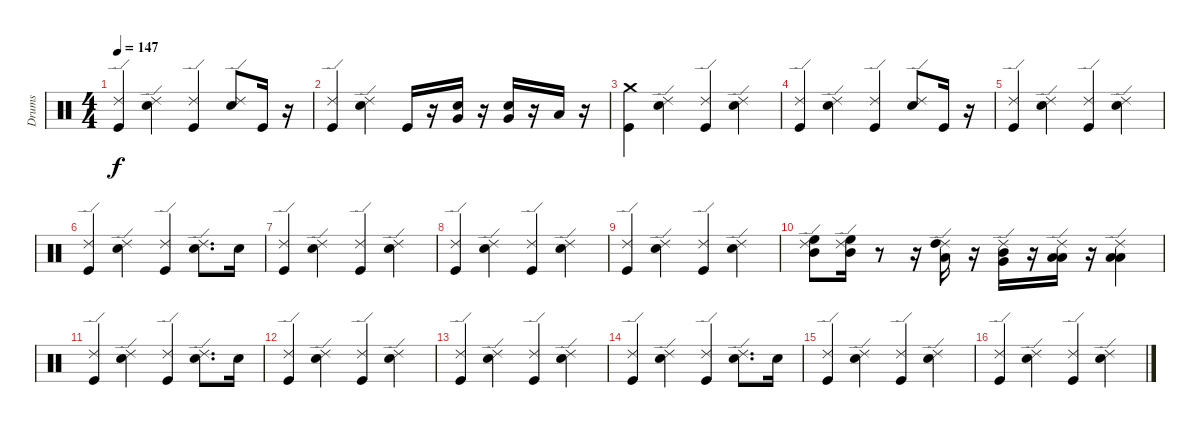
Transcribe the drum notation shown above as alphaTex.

\track ("Drums" "Drums") {instrument percussion}
\staff {score}
\articulation defaults
\ts (4 4)
\tempo 147
\clef neutral
\ks c
("Ride (edge) 2" "Kick (hit)").4{dy f} ("Ride (edge) 2" "Snare (hit) 2").4 ("Ride (edge) 2" "Kick (hit)").4 ("Ride (edge) 2" "Snare (hit) 2").8 "Kick (hit)".16 r.16 |
("Ride (edge) 2" "Kick (hit)").4 ("Ride (edge) 2" "Snare (hit) 2").4 "Kick (hit)".16 r.16 ("Very Low Tom (hit)" "Snare (hit) 2").16 r.16 ("Very Low Tom (hit)" "Snare (hit) 2").16 r.16 "Low Floor Tom (hit)".16 r.16 |
("Crash medium (hit)" "Kick (hit)").4 ("Ride (edge) 2" "Snare (hit) 2").4 ("Ride (edge) 2" "Kick (hit)").4 ("Ride (edge) 2" "Snare (hit) 2").4 |
("Ride (edge) 2" "Kick (hit)").4 ("Ride (edge) 2" "Snare (hit) 2").4 ("Ride (edge) 2" "Kick (hit)").4 ("Ride (edge) 2" "Snare (hit) 2").8 "Kick (hit)".16 r.16 |
("Ride (edge) 2" "Kick (hit)").4 ("Ride (edge) 2" "Snare (hit) 2").4 ("Ride (edge) 2" "Kick (hit)").4 ("Ride (edge) 2" "Snare (hit) 2").4 |
("Ride (edge) 2" "Kick (hit)").4 ("Ride (edge) 2" "Snare (hit) 2").4 ("Ride (edge) 2" "Kick (hit)").4 ("Ride (edge) 2" "Snare (hit) 2").8{d} "Snare (hit) 2".16 |
("Ride (edge) 2" "Kick (hit)").4 ("Ride (edge) 2" "Snare (hit) 2").4 ("Ride (edge) 2" "Kick (hit)").4 ("Ride (edge) 2" "Snare (hit) 2").4 |
("Ride (edge) 2" "Kick (hit)").4 ("Ride (edge) 2" "Snare (hit) 2").4 ("Ride (edge) 2" "Kick (hit)").4 ("Ride (edge) 2" "Snare (hit) 2").4 |
("Ride (edge) 2" "Kick (hit)").4 ("Ride (edge) 2" "Snare (hit) 2").4 ("Ride (edge) 2" "Kick (hit)").4 ("Ride (edge) 2" "Snare (hit) 2").4 |
("Ride (edge) 2" "Mid Tom (hit)" "High Floor Tom (hit)").8 ("Ride (edge) 2" "Mid Tom (hit)" "High Floor Tom (hit)").16 r.8 r.16 ("Ride (edge) 2" "Low Tom (hit)" "High Tom (hit)").16 r.16 ("Ride (edge) 2" "Very Low Tom (hit)" "Mid Tom (hit)").16 r.16 ("Ride (edge) 2" "Low Floor Tom (hit)" "Low Tom (hit)").16 r.16 ("Ride (edge) 2" "Low Floor Tom (hit)" "Low Tom (hit)").4 |
("Ride (edge) 2" "Kick (hit)").4 ("Ride (edge) 2" "Snare (hit) 2").4 ("Ride (edge) 2" "Kick (hit)").4 ("Ride (edge) 2" "Snare (hit) 2").8{d} "Snare (hit) 2".16 |
("Ride (edge) 2" "Kick (hit)").4 ("Ride (edge) 2" "Snare (hit) 2").4 ("Ride (edge) 2" "Kick (hit)").4 ("Ride (edge) 2" "Snare (hit) 2").4 |
("Ride (edge) 2" "Kick (hit)").4 ("Ride (edge) 2" "Snare (hit) 2").4 ("Ride (edge) 2" "Kick (hit)").4 ("Ride (edge) 2" "Snare (hit) 2").4 |
("Ride (edge) 2" "Kick (hit)").4 ("Ride (edge) 2" "Snare (hit) 2").4 ("Ride (edge) 2" "Kick (hit)").4 ("Ride (edge) 2" "Snare (hit) 2").8{d} "Snare (hit) 2".16 |
("Ride (edge) 2" "Kick (hit)").4 ("Ride (edge) 2" "Snare (hit) 2").4 ("Ride (edge) 2" "Kick (hit)").4 ("Ride (edge) 2" "Snare (hit) 2").4 |
("Ride (edge) 2" "Kick (hit)").4 ("Ride (edge) 2" "Snare (hit) 2").4 ("Ride (edge) 2" "Kick (hit)").4 ("Ride (edge) 2" "Snare (hit) 2").4
